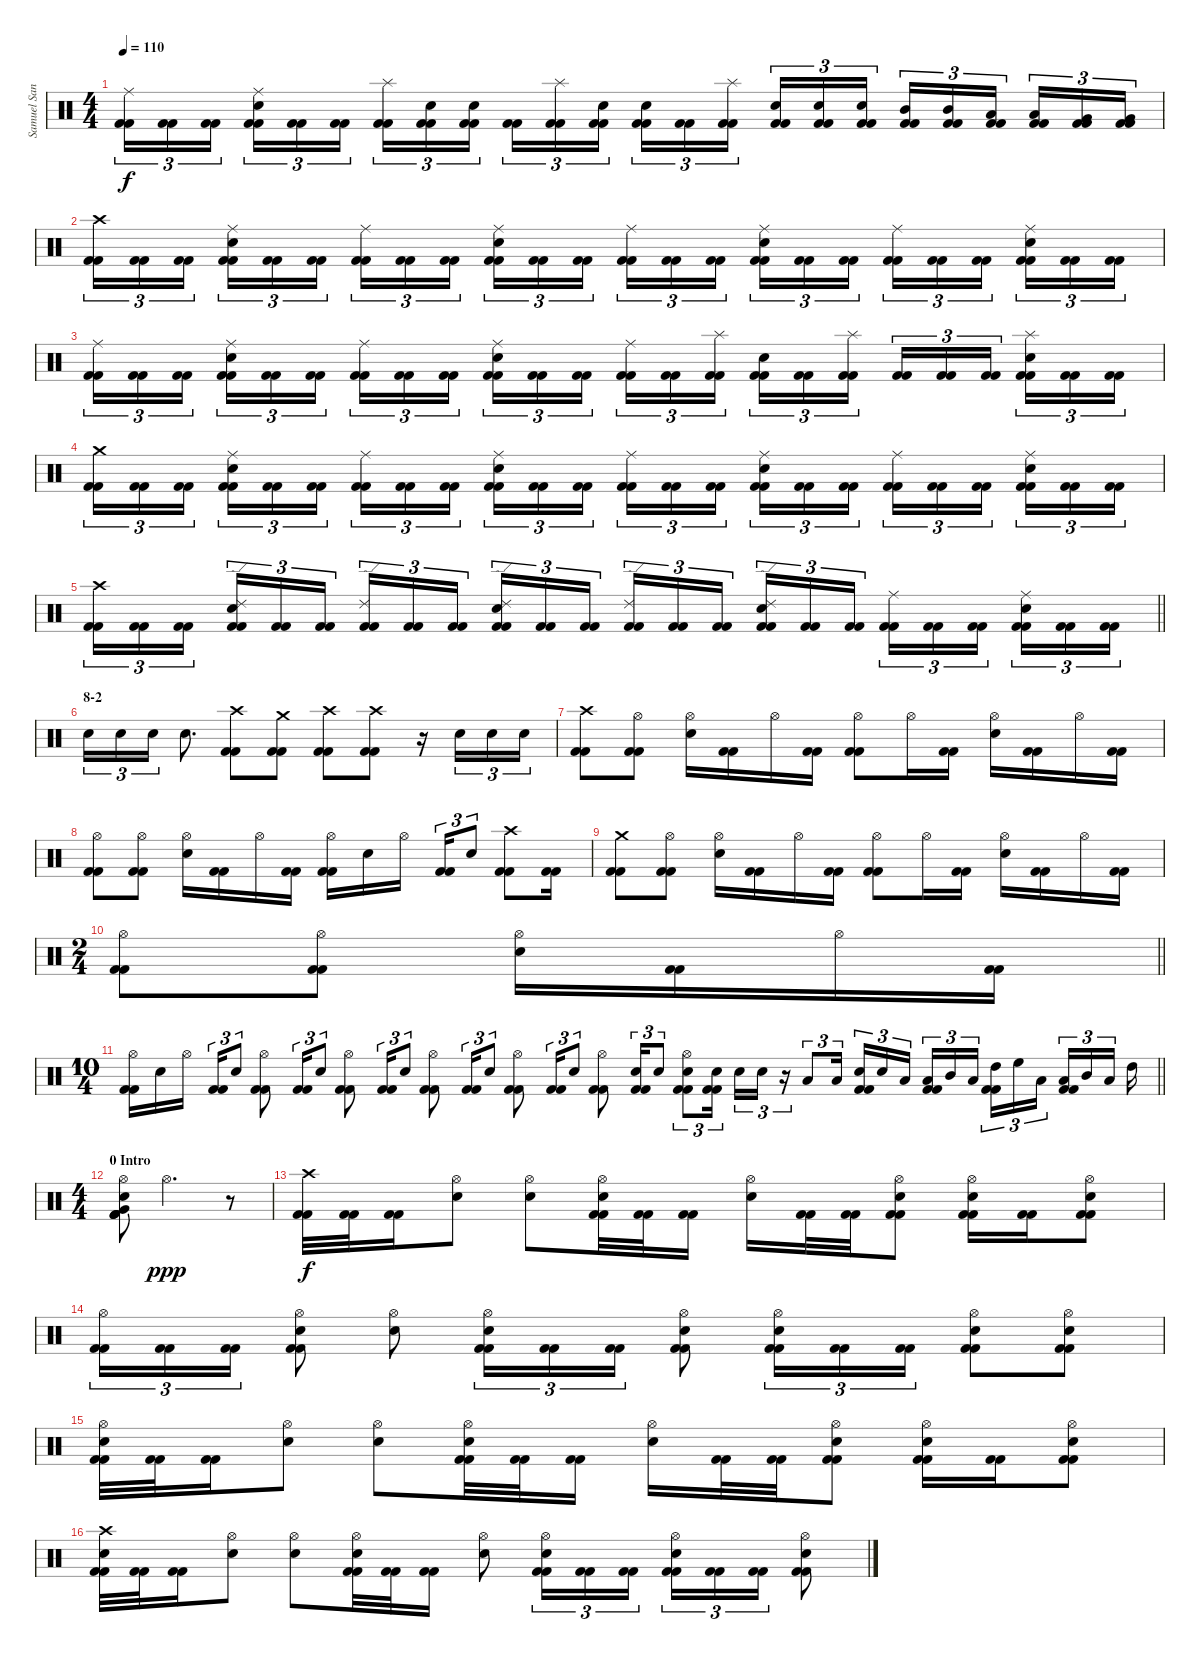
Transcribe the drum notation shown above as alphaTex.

\track ("Samuel Santiago" "Samuel San") {instrument percussion}
\staff {score}
\articulation defaults
\ts (4 4)
\tempo 110
\clef neutral
\ks c
("Ride (middle)" "Kick (hit) 2" "Kick (hit) 2").16{tu (3 2) dy f} ("Kick (hit) 2" "Kick (hit) 2").16{tu (3 2)} ("Kick (hit) 2" "Kick (hit) 2").16{tu (3 2) beam splitsecondary} ("Ride (middle)" "Electric Snare (hit)" "Kick (hit) 2" "Kick (hit) 2").16{tu (3 2)} ("Kick (hit) 2" "Kick (hit) 2").16{tu (3 2)} ("Kick (hit) 2" "Kick (hit) 2").16{tu (3 2)} ("Splash (hit)" "Kick (hit) 2" "Kick (hit) 2").16{tu (3 2)} ("Electric Snare (hit)" "Kick (hit) 2" "Kick (hit) 2").16{tu (3 2)} ("Electric Snare (hit)" "Kick (hit) 2" "Kick (hit) 2").16{tu (3 2) beam splitsecondary} ("Kick (hit) 2" "Kick (hit) 2").16{tu (3 2)} ("Splash (hit)" "Kick (hit) 2" "Kick (hit) 2").16{tu (3 2)} ("Electric Snare (hit)" "Kick (hit) 2" "Kick (hit) 2").16{tu (3 2)} ("Electric Snare (hit)" "Kick (hit) 2" "Kick (hit) 2").16{tu (3 2)} ("Kick (hit) 2" "Kick (hit) 2").16{tu (3 2)} ("Splash (hit)" "Kick (hit) 2" "Kick (hit) 2").16{tu (3 2) beam splitsecondary} ("Electric Snare (hit)" "Kick (hit) 2" "Kick (hit) 2").16{tu (3 2)} ("Electric Snare (hit)" "Kick (hit) 2" "Kick (hit) 2").16{tu (3 2)} ("Electric Snare (hit)" "Kick (hit) 2" "Kick (hit) 2").16{tu (3 2)} ("Mid Tom (hit)" "Kick (hit) 2" "Kick (hit) 2").16{tu (3 2)} ("Mid Tom (hit)" "Kick (hit) 2" "Kick (hit) 2").16{tu (3 2)} ("Low Tom (hit)" "Kick (hit) 2" "Kick (hit) 2").16{tu (3 2) beam splitsecondary} ("Low Tom (hit)" "Kick (hit) 2" "Kick (hit) 2").16{tu (3 2)} ("Very Low Tom (hit)" "Kick (hit) 2" "Kick (hit) 2").16{tu (3 2)} ("Very Low Tom (hit)" "Kick (hit) 2" "Kick (hit) 2").16{tu (3 2)} |
("Crash high (hit)" "Kick (hit) 2" "Kick (hit) 2").16{tu (3 2)} ("Kick (hit) 2" "Kick (hit) 2").16{tu (3 2)} ("Kick (hit) 2" "Kick (hit) 2").16{tu (3 2) beam splitsecondary} ("Ride (middle)" "Electric Snare (hit)" "Kick (hit) 2" "Kick (hit) 2").16{tu (3 2)} ("Kick (hit) 2" "Kick (hit) 2").16{tu (3 2)} ("Kick (hit) 2" "Kick (hit) 2").16{tu (3 2)} ("Ride (middle)" "Kick (hit) 2" "Kick (hit) 2").16{tu (3 2)} ("Kick (hit) 2" "Kick (hit) 2").16{tu (3 2)} ("Kick (hit) 2" "Kick (hit) 2").16{tu (3 2) beam splitsecondary} ("Ride (middle)" "Electric Snare (hit)" "Kick (hit) 2" "Kick (hit) 2").16{tu (3 2)} ("Kick (hit) 2" "Kick (hit) 2").16{tu (3 2)} ("Kick (hit) 2" "Kick (hit) 2").16{tu (3 2)} ("Ride (middle)" "Kick (hit) 2" "Kick (hit) 2").16{tu (3 2)} ("Kick (hit) 2" "Kick (hit) 2").16{tu (3 2)} ("Kick (hit) 2" "Kick (hit) 2").16{tu (3 2) beam splitsecondary} ("Ride (middle)" "Electric Snare (hit)" "Kick (hit) 2" "Kick (hit) 2").16{tu (3 2)} ("Kick (hit) 2" "Kick (hit) 2").16{tu (3 2)} ("Kick (hit) 2" "Kick (hit) 2").16{tu (3 2)} ("Ride (middle)" "Kick (hit) 2" "Kick (hit) 2").16{tu (3 2)} ("Kick (hit) 2" "Kick (hit) 2").16{tu (3 2)} ("Kick (hit) 2" "Kick (hit) 2").16{tu (3 2) beam splitsecondary} ("Ride (middle)" "Electric Snare (hit)" "Kick (hit) 2" "Kick (hit) 2").16{tu (3 2)} ("Kick (hit) 2" "Kick (hit) 2").16{tu (3 2)} ("Kick (hit) 2" "Kick (hit) 2").16{tu (3 2)} |
("Ride (middle)" "Kick (hit) 2" "Kick (hit) 2").16{tu (3 2)} ("Kick (hit) 2" "Kick (hit) 2").16{tu (3 2)} ("Kick (hit) 2" "Kick (hit) 2").16{tu (3 2) beam splitsecondary} ("Ride (middle)" "Electric Snare (hit)" "Kick (hit) 2" "Kick (hit) 2").16{tu (3 2)} ("Kick (hit) 2" "Kick (hit) 2").16{tu (3 2)} ("Kick (hit) 2" "Kick (hit) 2").16{tu (3 2)} ("Ride (middle)" "Kick (hit) 2" "Kick (hit) 2").16{tu (3 2)} ("Kick (hit) 2" "Kick (hit) 2").16{tu (3 2)} ("Kick (hit) 2" "Kick (hit) 2").16{tu (3 2) beam splitsecondary} ("Ride (middle)" "Electric Snare (hit)" "Kick (hit) 2" "Kick (hit) 2").16{tu (3 2)} ("Kick (hit) 2" "Kick (hit) 2").16{tu (3 2)} ("Kick (hit) 2" "Kick (hit) 2").16{tu (3 2)} ("Ride (middle)" "Kick (hit) 2" "Kick (hit) 2").16{tu (3 2)} ("Kick (hit) 2" "Kick (hit) 2").16{tu (3 2)} ("Splash (hit)" "Kick (hit) 2" "Kick (hit) 2").16{tu (3 2) beam splitsecondary} ("Electric Snare (hit)" "Kick (hit) 2" "Kick (hit) 2").16{tu (3 2)} ("Kick (hit) 2" "Kick (hit) 2").16{tu (3 2)} ("Splash (hit)" "Kick (hit) 2" "Kick (hit) 2").16{tu (3 2)} ("Kick (hit) 2" "Kick (hit) 2").16{tu (3 2)} ("Kick (hit) 2" "Kick (hit) 2").16{tu (3 2)} ("Kick (hit) 2" "Kick (hit) 2").16{tu (3 2) beam splitsecondary} ("Splash (hit)" "Electric Snare (hit)" "Kick (hit) 2" "Kick (hit) 2").16{tu (3 2)} ("Kick (hit) 2" "Kick (hit) 2").16{tu (3 2)} ("Kick (hit) 2" "Kick (hit) 2").16{tu (3 2)} |
("Crash medium (hit)" "Kick (hit) 2" "Kick (hit) 2").16{tu (3 2)} ("Kick (hit) 2" "Kick (hit) 2").16{tu (3 2)} ("Kick (hit) 2" "Kick (hit) 2").16{tu (3 2) beam splitsecondary} ("Ride (middle)" "Electric Snare (hit)" "Kick (hit) 2" "Kick (hit) 2").16{tu (3 2)} ("Kick (hit) 2" "Kick (hit) 2").16{tu (3 2)} ("Kick (hit) 2" "Kick (hit) 2").16{tu (3 2)} ("Ride (middle)" "Kick (hit) 2" "Kick (hit) 2").16{tu (3 2)} ("Kick (hit) 2" "Kick (hit) 2").16{tu (3 2)} ("Kick (hit) 2" "Kick (hit) 2").16{tu (3 2) beam splitsecondary} ("Ride (middle)" "Electric Snare (hit)" "Kick (hit) 2" "Kick (hit) 2").16{tu (3 2)} ("Kick (hit) 2" "Kick (hit) 2").16{tu (3 2)} ("Kick (hit) 2" "Kick (hit) 2").16{tu (3 2)} ("Ride (middle)" "Kick (hit) 2" "Kick (hit) 2").16{tu (3 2)} ("Kick (hit) 2" "Kick (hit) 2").16{tu (3 2)} ("Kick (hit) 2" "Kick (hit) 2").16{tu (3 2) beam splitsecondary} ("Ride (middle)" "Electric Snare (hit)" "Kick (hit) 2" "Kick (hit) 2").16{tu (3 2)} ("Kick (hit) 2" "Kick (hit) 2").16{tu (3 2)} ("Kick (hit) 2" "Kick (hit) 2").16{tu (3 2)} ("Ride (middle)" "Kick (hit) 2" "Kick (hit) 2").16{tu (3 2)} ("Kick (hit) 2" "Kick (hit) 2").16{tu (3 2)} ("Kick (hit) 2" "Kick (hit) 2").16{tu (3 2) beam splitsecondary} ("Ride (middle)" "Electric Snare (hit)" "Kick (hit) 2" "Kick (hit) 2").16{tu (3 2)} ("Kick (hit) 2" "Kick (hit) 2").16{tu (3 2)} ("Kick (hit) 2" "Kick (hit) 2").16{tu (3 2)} |
\barLineRight lightlight
("Crash high (hit)" "Kick (hit) 2" "Kick (hit) 2").16{tu (3 2)} ("Kick (hit) 2" "Kick (hit) 2").16{tu (3 2)} ("Kick (hit) 2" "Kick (hit) 2").16{tu (3 2) beam splitsecondary} ("Ride (edge) 2" "Electric Snare (hit)" "Kick (hit) 2" "Kick (hit) 2").16{tu (3 2)} ("Kick (hit) 2" "Kick (hit) 2").16{tu (3 2)} ("Kick (hit) 2" "Kick (hit) 2").16{tu (3 2)} ("Ride (edge) 2" "Kick (hit) 2" "Kick (hit) 2").16{tu (3 2)} ("Kick (hit) 2" "Kick (hit) 2").16{tu (3 2)} ("Kick (hit) 2" "Kick (hit) 2").16{tu (3 2) beam splitsecondary} ("Ride (edge) 2" "Electric Snare (hit)" "Kick (hit) 2" "Kick (hit) 2").16{tu (3 2)} ("Kick (hit) 2" "Kick (hit) 2").16{tu (3 2)} ("Kick (hit) 2" "Kick (hit) 2").16{tu (3 2)} ("Ride (edge) 2" "Kick (hit) 2" "Kick (hit) 2").16{tu (3 2)} ("Kick (hit) 2" "Kick (hit) 2").16{tu (3 2)} ("Kick (hit) 2" "Kick (hit) 2").16{tu (3 2) beam splitsecondary} ("Ride (edge) 2" "Electric Snare (hit)" "Kick (hit) 2" "Kick (hit) 2").16{tu (3 2)} ("Kick (hit) 2" "Kick (hit) 2").16{tu (3 2)} ("Kick (hit) 2" "Kick (hit) 2").16{tu (3 2)} ("Ride (middle)" "Kick (hit) 2" "Kick (hit) 2").16{tu (3 2)} ("Kick (hit) 2" "Kick (hit) 2").16{tu (3 2)} ("Kick (hit) 2" "Kick (hit) 2").16{tu (3 2) beam splitsecondary} ("Ride (middle)" "Electric Snare (hit)" "Kick (hit) 2" "Kick (hit) 2").16{tu (3 2)} ("Kick (hit) 2" "Kick (hit) 2").16{tu (3 2)} ("Kick (hit) 2" "Kick (hit) 2").16{tu (3 2)} |
\section ("" "8-2")
"Electric Snare (hit)".16{tu (3 2)} "Electric Snare (hit)".16{tu (3 2)} "Electric Snare (hit)".16{tu (3 2)} "Electric Snare (hit)".8{d} ("Crash high (hit)" "Kick (hit) 2" "Kick (hit) 2").8 ("Crash medium (hit)" "Kick (hit) 2" "Kick (hit) 2").8 ("Crash high (hit)" "Kick (hit) 2" "Kick (hit) 2").8 ("Crash high (hit)" "Kick (hit) 2" "Kick (hit) 2").8 r.16 "Electric Snare (hit)".16{tu (3 2)} "Electric Snare (hit)".16{tu (3 2)} "Electric Snare (hit)".16{tu (3 2)} |
("Crash high (hit)" "Kick (hit) 2" "Kick (hit) 2").8 ("Hi-Hat (open)" "Kick (hit) 2" "Kick (hit) 2").8 ("Hi-Hat (open)" "Electric Snare (hit)").16 ("Kick (hit) 2" "Kick (hit) 2").16 "Hi-Hat (open)".16 ("Kick (hit) 2" "Kick (hit) 2").16 ("Hi-Hat (open)" "Kick (hit) 2" "Kick (hit) 2").8 "Hi-Hat (open)".16 ("Kick (hit) 2" "Kick (hit) 2").16 ("Hi-Hat (open)" "Electric Snare (hit)").16 ("Kick (hit) 2" "Kick (hit) 2").16 "Hi-Hat (open)".16 ("Kick (hit) 2" "Kick (hit) 2").16 |
("Hi-Hat (open)" "Kick (hit) 2" "Kick (hit) 2").8 ("Hi-Hat (open)" "Kick (hit) 2" "Kick (hit) 2").8 ("Hi-Hat (open)" "Electric Snare (hit)").16 ("Kick (hit) 2" "Kick (hit) 2").16 "Hi-Hat (open)".16 ("Kick (hit) 2" "Kick (hit) 2").16 ("Hi-Hat (open)" "Kick (hit) 2" "Kick (hit) 2").16 "Electric Snare (hit)".16 "Hi-Hat (open)".16{beam splitsecondary} ("Kick (hit) 2" "Kick (hit) 2").16{tu (3 2)} "Electric Snare (hit)".8{tu (3 2)} ("Crash high (hit)" "Kick (hit) 2" "Kick (hit) 2").8 ("Kick (hit) 2" "Kick (hit) 2").16 |
("Crash medium (hit)" "Kick (hit) 2" "Kick (hit) 2").8 ("Hi-Hat (open)" "Kick (hit) 2" "Kick (hit) 2").8 ("Hi-Hat (open)" "Electric Snare (hit)").16 ("Kick (hit) 2" "Kick (hit) 2").16 "Hi-Hat (open)".16 ("Kick (hit) 2" "Kick (hit) 2").16 ("Hi-Hat (open)" "Kick (hit) 2" "Kick (hit) 2").8 "Hi-Hat (open)".16 ("Kick (hit) 2" "Kick (hit) 2").16 ("Hi-Hat (open)" "Electric Snare (hit)").16 ("Kick (hit) 2" "Kick (hit) 2").16 "Hi-Hat (open)".16 ("Kick (hit) 2" "Kick (hit) 2").16 |
\ts (2 4)
\barLineRight lightlight
("Hi-Hat (open)" "Kick (hit) 2" "Kick (hit) 2").8 ("Hi-Hat (open)" "Kick (hit) 2" "Kick (hit) 2").8 ("Hi-Hat (open)" "Electric Snare (hit)").16 ("Kick (hit) 2" "Kick (hit) 2").16 "Hi-Hat (open)".16 ("Kick (hit) 2" "Kick (hit) 2").16 |
\ts (10 4)
\barLineRight lightlight
("Hi-Hat (open)" "Kick (hit) 2" "Kick (hit) 2").16 "Electric Snare (hit)".16 "Hi-Hat (open)".16{beam splitsecondary} ("Kick (hit) 2" "Kick (hit) 2").16{tu (3 2)} "Electric Snare (hit)".8{tu (3 2)} ("Hi-Hat (open)" "Kick (hit) 2" "Kick (hit) 2").8 ("Kick (hit) 2" "Kick (hit) 2").16{tu (3 2)} "Electric Snare (hit)".8{tu (3 2)} ("Hi-Hat (open)" "Kick (hit) 2" "Kick (hit) 2").8 ("Kick (hit) 2" "Kick (hit) 2").16{tu (3 2)} "Electric Snare (hit)".8{tu (3 2)} ("Hi-Hat (open)" "Kick (hit) 2" "Kick (hit) 2").8 ("Kick (hit) 2" "Kick (hit) 2").16{tu (3 2)} "Electric Snare (hit)".8{tu (3 2)} ("Hi-Hat (open)" "Kick (hit) 2" "Kick (hit) 2").8 ("Kick (hit) 2" "Kick (hit) 2").16{tu (3 2)} "Electric Snare (hit)".8{tu (3 2)} ("Hi-Hat (open)" "Kick (hit) 2" "Kick (hit) 2").8 ("Electric Snare (hit)" "Kick (hit) 2" "Kick (hit) 2").16{tu (3 2)} "Electric Snare (hit)".8{tu (3 2)} ("Hi-Hat (open)" "Electric Snare (hit)" "Kick (hit) 2" "Kick (hit) 2").8{tu (3 2)} ("Electric Snare (hit)" "Kick (hit) 2" "Kick (hit) 2").16{tu (3 2) beam splitsecondary} "Electric Snare (hit)".16{tu (3 2)} "Electric Snare (hit)".16{tu (3 2)} r.16{tu (3 2)} "Low Tom (hit)".8{tu (3 2)} "Low Tom (hit)".16{tu (3 2) beam splitsecondary} ("Electric Snare (hit)" "Kick (hit) 2" "Kick (hit) 2").16{tu (3 2)} "Electric Snare (hit)".16{tu (3 2)} "Low Tom (hit)".16{tu (3 2) beam splitsecondary} ("Low Tom (hit)" "Kick (hit) 2" "Kick (hit) 2").16{tu (3 2)} "Mid Tom (hit)".16{tu (3 2)} "Low Tom (hit)".16{tu (3 2) beam splitsecondary} ("High Tom (hit)" "Kick (hit) 2" "Kick (hit) 2").16{tu (3 2)} "High Floor Tom (hit)".16{tu (3 2)} "Low Tom (hit)".16{tu (3 2) beam splitsecondary} ("Low Tom (hit)" "Kick (hit) 2" "Kick (hit) 2").16{tu (3 2)} "Mid Tom (hit)".16{tu (3 2)} "Low Tom (hit)".16{tu (3 2) beam splitsecondary} "High Tom (hit)".16 |
\ts (4 4)
\section ("" "0 Intro")
("Kick (hit) 2" "Hi-Hat (open)" "Electric Snare (hit)" "Very Low Tom (hit)" "Kick (hit) 2" "Kick (hit) 2").8 "Hi-Hat (open)".2{d dy ppp} r.8 |
("Crash high (hit)" "Kick (hit) 2" "Kick (hit) 2").32{dy f} ("Kick (hit) 2" "Kick (hit) 2").32 ("Kick (hit) 2" "Kick (hit) 2").16 ("Hi-Hat (open)" "Electric Snare (hit)").8 ("Hi-Hat (open)" "Electric Snare (hit)").8 ("Hi-Hat (open)" "Electric Snare (hit)" "Kick (hit) 2" "Kick (hit) 2").32 ("Kick (hit) 2" "Kick (hit) 2").32 ("Kick (hit) 2" "Kick (hit) 2").16 ("Hi-Hat (open)" "Electric Snare (hit)").16 ("Kick (hit) 2" "Kick (hit) 2").32 ("Kick (hit) 2" "Kick (hit) 2").32 ("Hi-Hat (open)" "Electric Snare (hit)" "Kick (hit) 2" "Kick (hit) 2").8 ("Hi-Hat (open)" "Electric Snare (hit)" "Kick (hit) 2" "Kick (hit) 2").16 ("Kick (hit) 2" "Kick (hit) 2").16 ("Hi-Hat (open)" "Electric Snare (hit)" "Kick (hit) 2" "Kick (hit) 2").8 |
("Hi-Hat (open)" "Kick (hit) 2" "Kick (hit) 2").16{tu (3 2)} ("Kick (hit) 2" "Kick (hit) 2").16{tu (3 2)} ("Kick (hit) 2" "Kick (hit) 2").16{tu (3 2)} ("Hi-Hat (open)" "Electric Snare (hit)" "Kick (hit) 2" "Kick (hit) 2").8 ("Hi-Hat (open)" "Electric Snare (hit)").8 ("Hi-Hat (open)" "Electric Snare (hit)" "Kick (hit) 2" "Kick (hit) 2").16{tu (3 2)} ("Kick (hit) 2" "Kick (hit) 2").16{tu (3 2)} ("Kick (hit) 2" "Kick (hit) 2").16{tu (3 2)} ("Hi-Hat (open)" "Electric Snare (hit)" "Kick (hit) 2" "Kick (hit) 2").8 ("Hi-Hat (open)" "Electric Snare (hit)" "Kick (hit) 2" "Kick (hit) 2").16{tu (3 2)} ("Kick (hit) 2" "Kick (hit) 2").16{tu (3 2)} ("Kick (hit) 2" "Kick (hit) 2").16{tu (3 2)} ("Hi-Hat (open)" "Electric Snare (hit)" "Kick (hit) 2" "Kick (hit) 2").8 ("Hi-Hat (open)" "Electric Snare (hit)" "Kick (hit) 2" "Kick (hit) 2").8 |
("Hi-Hat (open)" "Electric Snare (hit)" "Kick (hit) 2" "Kick (hit) 2").32 ("Kick (hit) 2" "Kick (hit) 2").32 ("Kick (hit) 2" "Kick (hit) 2").16 ("Hi-Hat (open)" "Electric Snare (hit)").8 ("Hi-Hat (open)" "Electric Snare (hit)").8 ("Hi-Hat (open)" "Electric Snare (hit)" "Kick (hit) 2" "Kick (hit) 2").32 ("Kick (hit) 2" "Kick (hit) 2").32 ("Kick (hit) 2" "Kick (hit) 2").16 ("Hi-Hat (open)" "Electric Snare (hit)").16 ("Kick (hit) 2" "Kick (hit) 2").32 ("Kick (hit) 2" "Kick (hit) 2").32 ("Hi-Hat (open)" "Electric Snare (hit)" "Kick (hit) 2" "Kick (hit) 2").8 ("Hi-Hat (open)" "Electric Snare (hit)" "Kick (hit) 2" "Kick (hit) 2").16 ("Kick (hit) 2" "Kick (hit) 2").16 ("Hi-Hat (open)" "Electric Snare (hit)" "Kick (hit) 2" "Kick (hit) 2").8 |
("Crash high (hit)" "Electric Snare (hit)" "Kick (hit) 2" "Kick (hit) 2").32 ("Kick (hit) 2" "Kick (hit) 2").32 ("Kick (hit) 2" "Kick (hit) 2").16 ("Hi-Hat (open)" "Electric Snare (hit)").8 ("Hi-Hat (open)" "Electric Snare (hit)").8 ("Hi-Hat (open)" "Electric Snare (hit)" "Kick (hit) 2" "Kick (hit) 2").32 ("Kick (hit) 2" "Kick (hit) 2").32 ("Kick (hit) 2" "Kick (hit) 2").16 ("Hi-Hat (open)" "Electric Snare (hit)").8 ("Hi-Hat (open)" "Electric Snare (hit)" "Kick (hit) 2" "Kick (hit) 2").16{tu (3 2)} ("Kick (hit) 2" "Kick (hit) 2").16{tu (3 2)} ("Kick (hit) 2" "Kick (hit) 2").16{tu (3 2)} ("Hi-Hat (open)" "Electric Snare (hit)" "Kick (hit) 2" "Kick (hit) 2").16{tu (3 2)} ("Kick (hit) 2" "Kick (hit) 2").16{tu (3 2)} ("Kick (hit) 2" "Kick (hit) 2").16{tu (3 2)} ("Hi-Hat (open)" "Electric Snare (hit)" "Kick (hit) 2" "Kick (hit) 2").8
